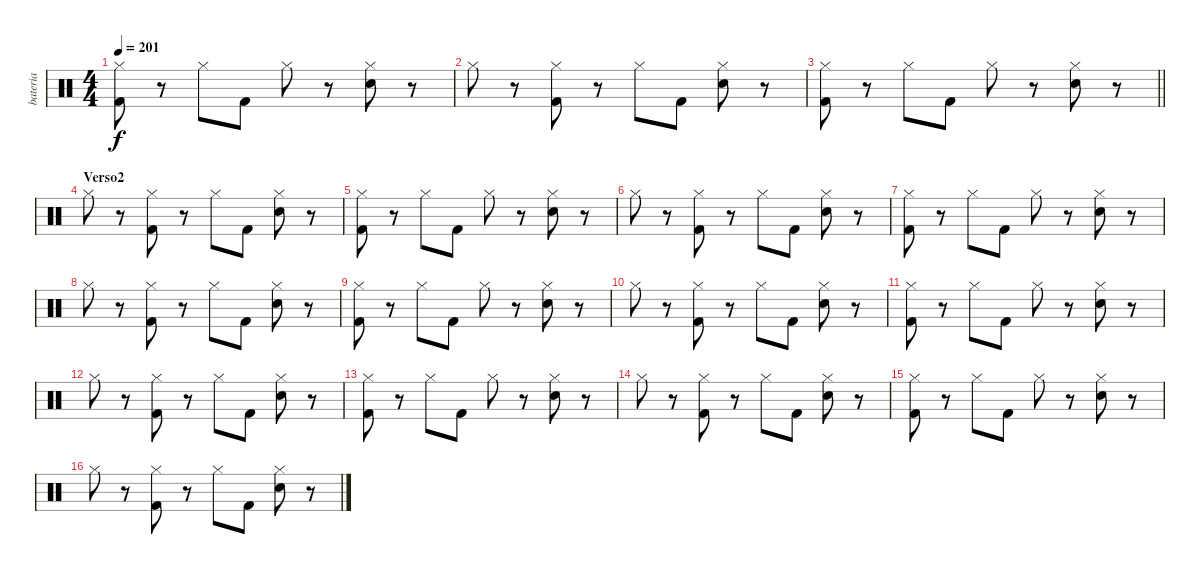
\track ("bateria" "bateria") {solo instrument percussion}
\staff {score}
\articulation defaults
\ts (4 4)
\tempo 201
\clef neutral
\ks c
("Hi-Hat (closed)" "Kick (hit) 2").8{dy f} r.8 "Hi-Hat (closed)".8 "Kick (hit) 2".8 "Hi-Hat (closed)".8 r.8 ("Hi-Hat (closed)" "Electric Snare (hit)").8 r.8 |
"Hi-Hat (closed)".8 r.8 ("Hi-Hat (closed)" "Kick (hit) 2").8 r.8 "Hi-Hat (closed)".8 "Kick (hit) 2".8 ("Hi-Hat (closed)" "Electric Snare (hit)").8 r.8 |
\barLineRight lightlight
("Hi-Hat (closed)" "Kick (hit) 2").8 r.8 "Hi-Hat (closed)".8 "Kick (hit) 2".8 "Hi-Hat (closed)".8 r.8 ("Hi-Hat (closed)" "Electric Snare (hit)").8 r.8 |
\section ("" "Verso2")
"Hi-Hat (closed)".8 r.8 ("Hi-Hat (closed)" "Kick (hit) 2").8 r.8 "Hi-Hat (closed)".8 "Kick (hit) 2".8 ("Hi-Hat (closed)" "Electric Snare (hit)").8 r.8 |
("Hi-Hat (closed)" "Kick (hit) 2").8 r.8 "Hi-Hat (closed)".8 "Kick (hit) 2".8 "Hi-Hat (closed)".8 r.8 ("Hi-Hat (closed)" "Electric Snare (hit)").8 r.8 |
"Hi-Hat (closed)".8 r.8 ("Hi-Hat (closed)" "Kick (hit) 2").8 r.8 "Hi-Hat (closed)".8 "Kick (hit) 2".8 ("Hi-Hat (closed)" "Electric Snare (hit)").8 r.8 |
("Hi-Hat (closed)" "Kick (hit) 2").8 r.8 "Hi-Hat (closed)".8 "Kick (hit) 2".8 "Hi-Hat (closed)".8 r.8 ("Hi-Hat (closed)" "Electric Snare (hit)").8 r.8 |
"Hi-Hat (closed)".8 r.8 ("Hi-Hat (closed)" "Kick (hit) 2").8 r.8 "Hi-Hat (closed)".8 "Kick (hit) 2".8 ("Hi-Hat (closed)" "Electric Snare (hit)").8 r.8 |
("Hi-Hat (closed)" "Kick (hit) 2").8 r.8 "Hi-Hat (closed)".8 "Kick (hit) 2".8 "Hi-Hat (closed)".8 r.8 ("Hi-Hat (closed)" "Electric Snare (hit)").8 r.8 |
"Hi-Hat (closed)".8 r.8 ("Hi-Hat (closed)" "Kick (hit) 2").8 r.8 "Hi-Hat (closed)".8 "Kick (hit) 2".8 ("Hi-Hat (closed)" "Electric Snare (hit)").8 r.8 |
("Hi-Hat (closed)" "Kick (hit) 2").8 r.8 "Hi-Hat (closed)".8 "Kick (hit) 2".8 "Hi-Hat (closed)".8 r.8 ("Hi-Hat (closed)" "Electric Snare (hit)").8 r.8 |
"Hi-Hat (closed)".8 r.8 ("Hi-Hat (closed)" "Kick (hit) 2").8 r.8 "Hi-Hat (closed)".8 "Kick (hit) 2".8 ("Hi-Hat (closed)" "Electric Snare (hit)").8 r.8 |
("Hi-Hat (closed)" "Kick (hit) 2").8 r.8 "Hi-Hat (closed)".8 "Kick (hit) 2".8 "Hi-Hat (closed)".8 r.8 ("Hi-Hat (closed)" "Electric Snare (hit)").8 r.8 |
"Hi-Hat (closed)".8 r.8 ("Hi-Hat (closed)" "Kick (hit) 2").8 r.8 "Hi-Hat (closed)".8 "Kick (hit) 2".8 ("Hi-Hat (closed)" "Electric Snare (hit)").8 r.8 |
("Hi-Hat (closed)" "Kick (hit) 2").8 r.8 "Hi-Hat (closed)".8 "Kick (hit) 2".8 "Hi-Hat (closed)".8 r.8 ("Hi-Hat (closed)" "Electric Snare (hit)").8 r.8 |
"Hi-Hat (closed)".8 r.8 ("Hi-Hat (closed)" "Kick (hit) 2").8 r.8 "Hi-Hat (closed)".8 "Kick (hit) 2".8 ("Hi-Hat (closed)" "Electric Snare (hit)").8 r.8
